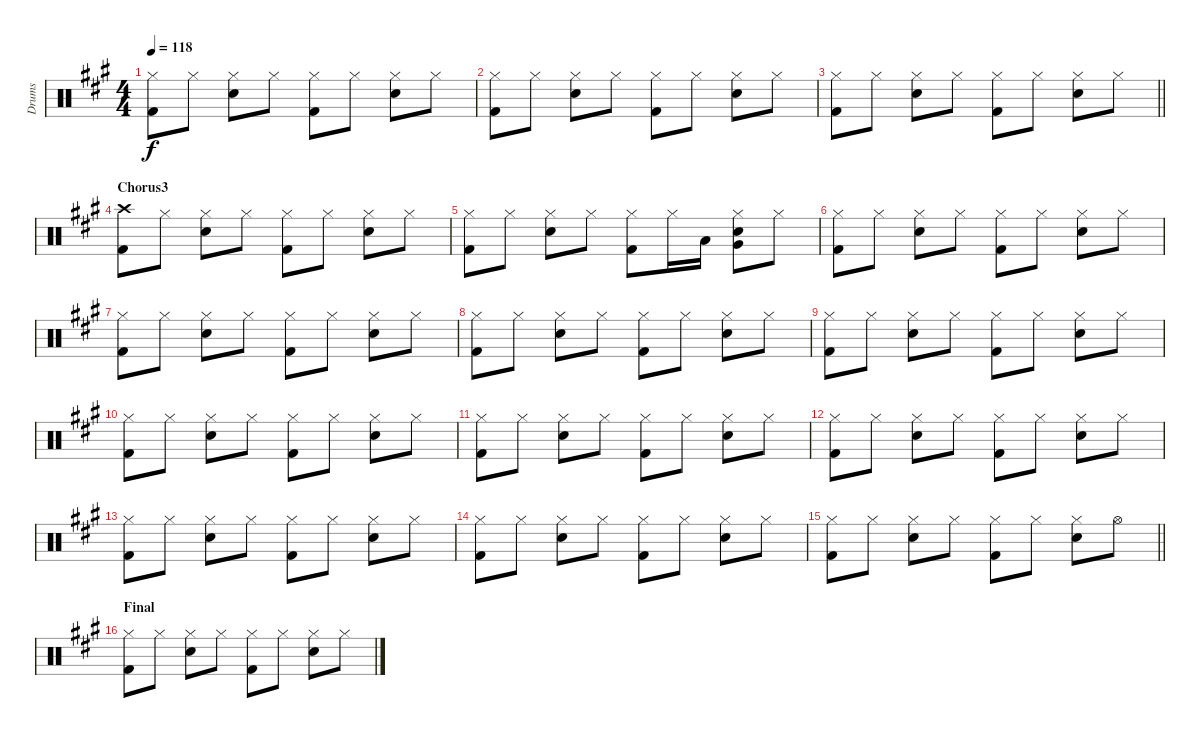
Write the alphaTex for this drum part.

\track ("Drums" "Drums") {instrument percussion}
\staff {score}
\articulation defaults
\ts (4 4)
\tempo 118
\clef neutral
\ks f#minor
("Hi-Hat (closed)" "Kick (hit) 2").8{dy f} "Hi-Hat (closed)".8 ("Hi-Hat (closed)" "Snare (hit) 2").8 "Hi-Hat (closed)".8 ("Hi-Hat (closed)" "Kick (hit) 2").8 "Hi-Hat (closed)".8 ("Hi-Hat (closed)" "Snare (hit) 2").8 "Hi-Hat (closed)".8 |
("Hi-Hat (closed)" "Kick (hit) 2").8 "Hi-Hat (closed)".8 ("Hi-Hat (closed)" "Snare (hit) 2").8 "Hi-Hat (closed)".8 ("Hi-Hat (closed)" "Kick (hit) 2").8 "Hi-Hat (closed)".8 ("Hi-Hat (closed)" "Snare (hit) 2").8 "Hi-Hat (closed)".8 |
\barLineRight lightlight
("Hi-Hat (closed)" "Kick (hit) 2").8 "Hi-Hat (closed)".8 ("Hi-Hat (closed)" "Snare (hit) 2").8 "Hi-Hat (closed)".8 ("Hi-Hat (closed)" "Kick (hit) 2").8 "Hi-Hat (closed)".8 ("Hi-Hat (closed)" "Snare (hit) 2").8 "Hi-Hat (closed)".8 |
\section ("" "Chorus3")
("Crash high (hit)" "Kick (hit) 2").8 "Hi-Hat (closed)".8 ("Hi-Hat (closed)" "Snare (hit) 2").8 "Hi-Hat (closed)".8 ("Hi-Hat (closed)" "Kick (hit) 2").8 "Hi-Hat (closed)".8 ("Hi-Hat (closed)" "Snare (hit) 2").8 "Hi-Hat (closed)".8 |
("Hi-Hat (closed)" "Kick (hit) 2").8 "Hi-Hat (closed)".8 ("Hi-Hat (closed)" "Snare (hit) 2").8 "Hi-Hat (closed)".8 ("Hi-Hat (closed)" "Kick (hit) 2").8 "Hi-Hat (closed)".16 "Low Floor Tom (hit)".16 ("Hi-Hat (closed)" "Very Low Tom (hit)" "Snare (hit) 2").8 "Hi-Hat (closed)".8 |
("Hi-Hat (closed)" "Kick (hit) 2").8 "Hi-Hat (closed)".8 ("Hi-Hat (closed)" "Snare (hit) 2").8 "Hi-Hat (closed)".8 ("Hi-Hat (closed)" "Kick (hit) 2").8 "Hi-Hat (closed)".8 ("Hi-Hat (closed)" "Snare (hit) 2").8 "Hi-Hat (closed)".8 |
("Hi-Hat (closed)" "Kick (hit) 2").8 "Hi-Hat (closed)".8 ("Hi-Hat (closed)" "Snare (hit) 2").8 "Hi-Hat (closed)".8 ("Hi-Hat (closed)" "Kick (hit) 2").8 "Hi-Hat (closed)".8 ("Hi-Hat (closed)" "Snare (hit) 2").8 "Hi-Hat (closed)".8 |
("Hi-Hat (closed)" "Kick (hit) 2").8 "Hi-Hat (closed)".8 ("Hi-Hat (closed)" "Snare (hit) 2").8 "Hi-Hat (closed)".8 ("Hi-Hat (closed)" "Kick (hit) 2").8 "Hi-Hat (closed)".8 ("Hi-Hat (closed)" "Snare (hit) 2").8 "Hi-Hat (closed)".8 |
("Hi-Hat (closed)" "Kick (hit) 2").8 "Hi-Hat (closed)".8 ("Hi-Hat (closed)" "Snare (hit) 2").8 "Hi-Hat (closed)".8 ("Hi-Hat (closed)" "Kick (hit) 2").8 "Hi-Hat (closed)".8 ("Hi-Hat (closed)" "Snare (hit) 2").8 "Hi-Hat (closed)".8 |
("Hi-Hat (closed)" "Kick (hit) 2").8 "Hi-Hat (closed)".8 ("Hi-Hat (closed)" "Snare (hit) 2").8 "Hi-Hat (closed)".8 ("Hi-Hat (closed)" "Kick (hit) 2").8 "Hi-Hat (closed)".8 ("Hi-Hat (closed)" "Snare (hit) 2").8 "Hi-Hat (closed)".8 |
("Hi-Hat (closed)" "Kick (hit) 2").8 "Hi-Hat (closed)".8 ("Hi-Hat (closed)" "Snare (hit) 2").8 "Hi-Hat (closed)".8 ("Hi-Hat (closed)" "Kick (hit) 2").8 "Hi-Hat (closed)".8 ("Hi-Hat (closed)" "Snare (hit) 2").8 "Hi-Hat (closed)".8 |
("Hi-Hat (closed)" "Kick (hit) 2").8 "Hi-Hat (closed)".8 ("Hi-Hat (closed)" "Snare (hit) 2").8 "Hi-Hat (closed)".8 ("Hi-Hat (closed)" "Kick (hit) 2").8 "Hi-Hat (closed)".8 ("Hi-Hat (closed)" "Snare (hit) 2").8 "Hi-Hat (closed)".8 |
("Hi-Hat (closed)" "Kick (hit) 2").8 "Hi-Hat (closed)".8 ("Hi-Hat (closed)" "Snare (hit) 2").8 "Hi-Hat (closed)".8 ("Hi-Hat (closed)" "Kick (hit) 2").8 "Hi-Hat (closed)".8 ("Hi-Hat (closed)" "Snare (hit) 2").8 "Hi-Hat (closed)".8 |
("Hi-Hat (closed)" "Kick (hit) 2").8 "Hi-Hat (closed)".8 ("Hi-Hat (closed)" "Snare (hit) 2").8 "Hi-Hat (closed)".8 ("Hi-Hat (closed)" "Kick (hit) 2").8 "Hi-Hat (closed)".8 ("Hi-Hat (closed)" "Snare (hit) 2").8 "Hi-Hat (closed)".8 |
\barLineRight lightlight
("Hi-Hat (closed)" "Kick (hit) 2").8 "Hi-Hat (closed)".8 ("Hi-Hat (closed)" "Snare (hit) 2").8 "Hi-Hat (closed)".8 ("Hi-Hat (closed)" "Kick (hit) 2").8 "Hi-Hat (closed)".8 ("Hi-Hat (closed)" "Snare (hit) 2").8 "Hi-Hat (open)".8 |
\section ("" "Final")
("Hi-Hat (closed)" "Kick (hit) 2").8 "Hi-Hat (closed)".8 ("Hi-Hat (closed)" "Snare (hit) 2").8 "Hi-Hat (closed)".8 ("Hi-Hat (closed)" "Kick (hit) 2").8 "Hi-Hat (closed)".8 ("Hi-Hat (closed)" "Snare (hit) 2").8 "Hi-Hat (closed)".8
